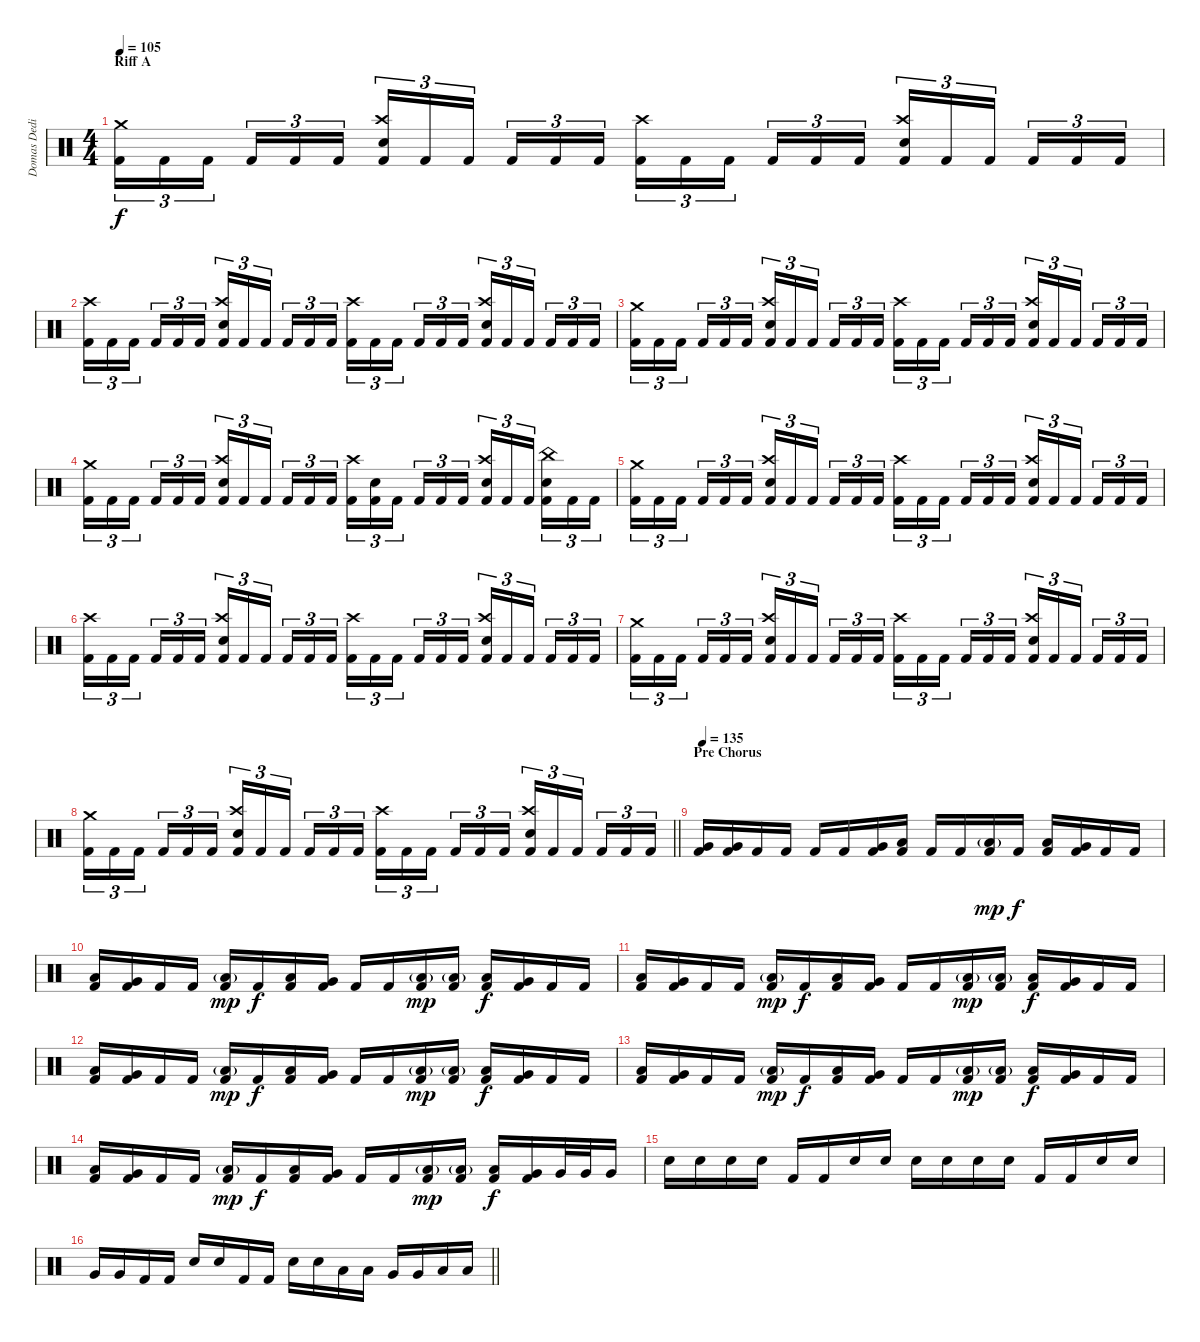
\track ("Domas Dedinas" "Domas Dedi") {instrument percussion}
\staff {score}
\articulation defaults
\ts (4 4)
\section ("" "Riff A")
\tempo 105
\clef neutral
\ks c
("Crash medium (hit)" "Kick (hit) 2").16{tu (3 2) dy f} "Kick (hit) 2".16{tu (3 2)} "Kick (hit) 2".16{tu (3 2) beam splitsecondary} "Kick (hit) 2".16{tu (3 2)} "Kick (hit) 2".16{tu (3 2)} "Kick (hit) 2".16{tu (3 2)} ("Crash high (hit)" "Snare (hit) 2" "Kick (hit) 2").16{tu (3 2)} "Kick (hit) 2".16{tu (3 2)} "Kick (hit) 2".16{tu (3 2) beam splitsecondary} "Kick (hit) 2".16{tu (3 2)} "Kick (hit) 2".16{tu (3 2)} "Kick (hit) 2".16{tu (3 2)} ("Crash high (hit)" "Kick (hit) 2").16{tu (3 2)} "Kick (hit) 2".16{tu (3 2)} "Kick (hit) 2".16{tu (3 2) beam splitsecondary} "Kick (hit) 2".16{tu (3 2)} "Kick (hit) 2".16{tu (3 2)} "Kick (hit) 2".16{tu (3 2)} ("Crash high (hit)" "Snare (hit) 2" "Kick (hit) 2").16{tu (3 2)} "Kick (hit) 2".16{tu (3 2)} "Kick (hit) 2".16{tu (3 2) beam splitsecondary} "Kick (hit) 2".16{tu (3 2)} "Kick (hit) 2".16{tu (3 2)} "Kick (hit) 2".16{tu (3 2)} |
("Crash high (hit)" "Kick (hit) 2").16{tu (3 2)} "Kick (hit) 2".16{tu (3 2)} "Kick (hit) 2".16{tu (3 2) beam splitsecondary} "Kick (hit) 2".16{tu (3 2)} "Kick (hit) 2".16{tu (3 2)} "Kick (hit) 2".16{tu (3 2)} ("Crash high (hit)" "Snare (hit) 2" "Kick (hit) 2").16{tu (3 2)} "Kick (hit) 2".16{tu (3 2)} "Kick (hit) 2".16{tu (3 2) beam splitsecondary} "Kick (hit) 2".16{tu (3 2)} "Kick (hit) 2".16{tu (3 2)} "Kick (hit) 2".16{tu (3 2)} ("Crash high (hit)" "Kick (hit) 2").16{tu (3 2)} "Kick (hit) 2".16{tu (3 2)} "Kick (hit) 2".16{tu (3 2) beam splitsecondary} "Kick (hit) 2".16{tu (3 2)} "Kick (hit) 2".16{tu (3 2)} "Kick (hit) 2".16{tu (3 2)} ("Crash high (hit)" "Snare (hit) 2" "Kick (hit) 2").16{tu (3 2)} "Kick (hit) 2".16{tu (3 2)} "Kick (hit) 2".16{tu (3 2) beam splitsecondary} "Kick (hit) 2".16{tu (3 2)} "Kick (hit) 2".16{tu (3 2)} "Kick (hit) 2".16{tu (3 2)} |
("Crash medium (hit)" "Kick (hit) 2").16{tu (3 2)} "Kick (hit) 2".16{tu (3 2)} "Kick (hit) 2".16{tu (3 2) beam splitsecondary} "Kick (hit) 2".16{tu (3 2)} "Kick (hit) 2".16{tu (3 2)} "Kick (hit) 2".16{tu (3 2)} ("Crash high (hit)" "Snare (hit) 2" "Kick (hit) 2").16{tu (3 2)} "Kick (hit) 2".16{tu (3 2)} "Kick (hit) 2".16{tu (3 2) beam splitsecondary} "Kick (hit) 2".16{tu (3 2)} "Kick (hit) 2".16{tu (3 2)} "Kick (hit) 2".16{tu (3 2)} ("Crash high (hit)" "Kick (hit) 2").16{tu (3 2)} "Kick (hit) 2".16{tu (3 2)} "Kick (hit) 2".16{tu (3 2) beam splitsecondary} "Kick (hit) 2".16{tu (3 2)} "Kick (hit) 2".16{tu (3 2)} "Kick (hit) 2".16{tu (3 2)} ("Crash high (hit)" "Snare (hit) 2" "Kick (hit) 2").16{tu (3 2)} "Kick (hit) 2".16{tu (3 2)} "Kick (hit) 2".16{tu (3 2) beam splitsecondary} "Kick (hit) 2".16{tu (3 2)} "Kick (hit) 2".16{tu (3 2)} "Kick (hit) 2".16{tu (3 2)} |
("Crash medium (hit)" "Kick (hit) 2").16{tu (3 2)} "Kick (hit) 2".16{tu (3 2)} "Kick (hit) 2".16{tu (3 2) beam splitsecondary} "Kick (hit) 2".16{tu (3 2)} "Kick (hit) 2".16{tu (3 2)} "Kick (hit) 2".16{tu (3 2)} ("Crash high (hit)" "Snare (hit) 2" "Kick (hit) 2").16{tu (3 2)} "Kick (hit) 2".16{tu (3 2)} "Kick (hit) 2".16{tu (3 2) beam splitsecondary} "Kick (hit) 2".16{tu (3 2)} "Kick (hit) 2".16{tu (3 2)} "Kick (hit) 2".16{tu (3 2)} ("Crash high (hit)" "Kick (hit) 2").16{tu (3 2)} ("Snare (hit) 2" "Kick (hit) 2").16{tu (3 2)} "Kick (hit) 2".16{tu (3 2) beam splitsecondary} "Kick (hit) 2".16{tu (3 2)} "Kick (hit) 2".16{tu (3 2)} "Kick (hit) 2".16{tu (3 2)} ("Crash high (hit)" "Snare (hit) 2" "Kick (hit) 2").16{tu (3 2)} "Kick (hit) 2".16{tu (3 2)} "Kick (hit) 2".16{tu (3 2) beam splitsecondary} ("China (hit)" "Snare (hit) 2" "Kick (hit) 2").16{tu (3 2)} "Kick (hit) 2".16{tu (3 2)} "Kick (hit) 2".16{tu (3 2)} |
("Crash medium (hit)" "Kick (hit) 2").16{tu (3 2)} "Kick (hit) 2".16{tu (3 2)} "Kick (hit) 2".16{tu (3 2) beam splitsecondary} "Kick (hit) 2".16{tu (3 2)} "Kick (hit) 2".16{tu (3 2)} "Kick (hit) 2".16{tu (3 2)} ("Crash high (hit)" "Snare (hit) 2" "Kick (hit) 2").16{tu (3 2)} "Kick (hit) 2".16{tu (3 2)} "Kick (hit) 2".16{tu (3 2) beam splitsecondary} "Kick (hit) 2".16{tu (3 2)} "Kick (hit) 2".16{tu (3 2)} "Kick (hit) 2".16{tu (3 2)} ("Crash high (hit)" "Kick (hit) 2").16{tu (3 2)} "Kick (hit) 2".16{tu (3 2)} "Kick (hit) 2".16{tu (3 2) beam splitsecondary} "Kick (hit) 2".16{tu (3 2)} "Kick (hit) 2".16{tu (3 2)} "Kick (hit) 2".16{tu (3 2)} ("Crash high (hit)" "Snare (hit) 2" "Kick (hit) 2").16{tu (3 2)} "Kick (hit) 2".16{tu (3 2)} "Kick (hit) 2".16{tu (3 2) beam splitsecondary} "Kick (hit) 2".16{tu (3 2)} "Kick (hit) 2".16{tu (3 2)} "Kick (hit) 2".16{tu (3 2)} |
("Crash high (hit)" "Kick (hit) 2").16{tu (3 2)} "Kick (hit) 2".16{tu (3 2)} "Kick (hit) 2".16{tu (3 2) beam splitsecondary} "Kick (hit) 2".16{tu (3 2)} "Kick (hit) 2".16{tu (3 2)} "Kick (hit) 2".16{tu (3 2)} ("Crash high (hit)" "Snare (hit) 2" "Kick (hit) 2").16{tu (3 2)} "Kick (hit) 2".16{tu (3 2)} "Kick (hit) 2".16{tu (3 2) beam splitsecondary} "Kick (hit) 2".16{tu (3 2)} "Kick (hit) 2".16{tu (3 2)} "Kick (hit) 2".16{tu (3 2)} ("Crash high (hit)" "Kick (hit) 2").16{tu (3 2)} "Kick (hit) 2".16{tu (3 2)} "Kick (hit) 2".16{tu (3 2) beam splitsecondary} "Kick (hit) 2".16{tu (3 2)} "Kick (hit) 2".16{tu (3 2)} "Kick (hit) 2".16{tu (3 2)} ("Crash high (hit)" "Snare (hit) 2" "Kick (hit) 2").16{tu (3 2)} "Kick (hit) 2".16{tu (3 2)} "Kick (hit) 2".16{tu (3 2) beam splitsecondary} "Kick (hit) 2".16{tu (3 2)} "Kick (hit) 2".16{tu (3 2)} "Kick (hit) 2".16{tu (3 2)} |
("Crash medium (hit)" "Kick (hit) 2").16{tu (3 2)} "Kick (hit) 2".16{tu (3 2)} "Kick (hit) 2".16{tu (3 2) beam splitsecondary} "Kick (hit) 2".16{tu (3 2)} "Kick (hit) 2".16{tu (3 2)} "Kick (hit) 2".16{tu (3 2)} ("Crash high (hit)" "Snare (hit) 2" "Kick (hit) 2").16{tu (3 2)} "Kick (hit) 2".16{tu (3 2)} "Kick (hit) 2".16{tu (3 2) beam splitsecondary} "Kick (hit) 2".16{tu (3 2)} "Kick (hit) 2".16{tu (3 2)} "Kick (hit) 2".16{tu (3 2)} ("Crash high (hit)" "Kick (hit) 2").16{tu (3 2)} "Kick (hit) 2".16{tu (3 2)} "Kick (hit) 2".16{tu (3 2) beam splitsecondary} "Kick (hit) 2".16{tu (3 2)} "Kick (hit) 2".16{tu (3 2)} "Kick (hit) 2".16{tu (3 2)} ("Crash high (hit)" "Snare (hit) 2" "Kick (hit) 2").16{tu (3 2)} "Kick (hit) 2".16{tu (3 2)} "Kick (hit) 2".16{tu (3 2) beam splitsecondary} "Kick (hit) 2".16{tu (3 2)} "Kick (hit) 2".16{tu (3 2)} "Kick (hit) 2".16{tu (3 2)} |
\barLineRight lightlight
("Crash medium (hit)" "Kick (hit) 2").16{tu (3 2)} "Kick (hit) 2".16{tu (3 2)} "Kick (hit) 2".16{tu (3 2) beam splitsecondary} "Kick (hit) 2".16{tu (3 2)} "Kick (hit) 2".16{tu (3 2)} "Kick (hit) 2".16{tu (3 2)} ("Crash high (hit)" "Snare (hit) 2" "Kick (hit) 2").16{tu (3 2)} "Kick (hit) 2".16{tu (3 2)} "Kick (hit) 2".16{tu (3 2) beam splitsecondary} "Kick (hit) 2".16{tu (3 2)} "Kick (hit) 2".16{tu (3 2)} "Kick (hit) 2".16{tu (3 2)} ("Crash high (hit)" "Kick (hit) 2").16{tu (3 2)} "Kick (hit) 2".16{tu (3 2)} "Kick (hit) 2".16{tu (3 2) beam splitsecondary} "Kick (hit) 2".16{tu (3 2)} "Kick (hit) 2".16{tu (3 2)} "Kick (hit) 2".16{tu (3 2)} ("Crash high (hit)" "Snare (hit) 2" "Kick (hit) 2").16{tu (3 2)} "Kick (hit) 2".16{tu (3 2)} "Kick (hit) 2".16{tu (3 2) beam splitsecondary} "Kick (hit) 2".16{tu (3 2)} "Kick (hit) 2".16{tu (3 2)} "Kick (hit) 2".16{tu (3 2)} |
\section ("" "Pre Chorus")
\tempo 135
("Very Low Tom (hit)" "Kick (hit) 2").16 ("Very Low Tom (hit)" "Kick (hit) 2").16 "Kick (hit) 2".16 "Kick (hit) 2".16 "Kick (hit) 2".16 "Kick (hit) 2".16 ("Very Low Tom (hit)" "Kick (hit) 2").16 ("Low Floor Tom (hit)" "Kick (hit) 2").16 "Kick (hit) 2".16 "Kick (hit) 2".16 ("Low Floor Tom (hit)"{g} "Kick (hit) 2").16{dy mp} "Kick (hit) 2".16{dy f} ("Low Tom (hit)" "Kick (hit) 2").16 ("Very Low Tom (hit)" "Kick (hit) 2").16 "Kick (hit) 2".16 "Kick (hit) 2".16 |
("Low Tom (hit)" "Kick (hit) 2").16 ("Very Low Tom (hit)" "Kick (hit) 2").16 "Kick (hit) 2".16 "Kick (hit) 2".16 ("Low Floor Tom (hit)"{g} "Kick (hit) 2").16{dy mp} "Kick (hit) 2".16{dy f} ("Low Tom (hit)" "Kick (hit) 2").16 ("Very Low Tom (hit)" "Kick (hit) 2").16 "Kick (hit) 2".16 "Kick (hit) 2".16 ("Low Floor Tom (hit)"{g} "Kick (hit) 2").16{dy mp} ("Low Floor Tom (hit)"{g} "Kick (hit) 2").16 ("Low Tom (hit)" "Kick (hit) 2").16{dy f} ("Very Low Tom (hit)" "Kick (hit) 2").16 "Kick (hit) 2".16 "Kick (hit) 2".16 |
("Low Tom (hit)" "Kick (hit) 2").16 ("Very Low Tom (hit)" "Kick (hit) 2").16 "Kick (hit) 2".16 "Kick (hit) 2".16 ("Low Floor Tom (hit)"{g} "Kick (hit) 2").16{dy mp} "Kick (hit) 2".16{dy f} ("Low Tom (hit)" "Kick (hit) 2").16 ("Very Low Tom (hit)" "Kick (hit) 2").16 "Kick (hit) 2".16 "Kick (hit) 2".16 ("Low Floor Tom (hit)"{g} "Kick (hit) 2").16{dy mp} ("Low Floor Tom (hit)"{g} "Kick (hit) 2").16 ("Low Tom (hit)" "Kick (hit) 2").16{dy f} ("Very Low Tom (hit)" "Kick (hit) 2").16 "Kick (hit) 2".16 "Kick (hit) 2".16 |
("Low Tom (hit)" "Kick (hit) 2").16 ("Very Low Tom (hit)" "Kick (hit) 2").16 "Kick (hit) 2".16 "Kick (hit) 2".16 ("Low Floor Tom (hit)"{g} "Kick (hit) 2").16{dy mp} "Kick (hit) 2".16{dy f} ("Low Tom (hit)" "Kick (hit) 2").16 ("Very Low Tom (hit)" "Kick (hit) 2").16 "Kick (hit) 2".16 "Kick (hit) 2".16 ("Low Floor Tom (hit)"{g} "Kick (hit) 2").16{dy mp} ("Low Floor Tom (hit)"{g} "Kick (hit) 2").16 ("Low Tom (hit)" "Kick (hit) 2").16{dy f} ("Very Low Tom (hit)" "Kick (hit) 2").16 "Kick (hit) 2".16 "Kick (hit) 2".16 |
("Low Tom (hit)" "Kick (hit) 2").16 ("Very Low Tom (hit)" "Kick (hit) 2").16 "Kick (hit) 2".16 "Kick (hit) 2".16 ("Low Floor Tom (hit)"{g} "Kick (hit) 2").16{dy mp} "Kick (hit) 2".16{dy f} ("Low Tom (hit)" "Kick (hit) 2").16 ("Very Low Tom (hit)" "Kick (hit) 2").16 "Kick (hit) 2".16 "Kick (hit) 2".16 ("Low Floor Tom (hit)"{g} "Kick (hit) 2").16{dy mp} ("Low Floor Tom (hit)"{g} "Kick (hit) 2").16 ("Low Tom (hit)" "Kick (hit) 2").16{dy f} ("Very Low Tom (hit)" "Kick (hit) 2").16 "Kick (hit) 2".16 "Kick (hit) 2".16 |
("Low Tom (hit)" "Kick (hit) 2").16 ("Very Low Tom (hit)" "Kick (hit) 2").16 "Kick (hit) 2".16 "Kick (hit) 2".16 ("Low Floor Tom (hit)"{g} "Kick (hit) 2").16{dy mp} "Kick (hit) 2".16{dy f} ("Low Tom (hit)" "Kick (hit) 2").16 ("Very Low Tom (hit)" "Kick (hit) 2").16 "Kick (hit) 2".16 "Kick (hit) 2".16 ("Low Floor Tom (hit)"{g} "Kick (hit) 2").16{dy mp} ("Low Floor Tom (hit)"{g} "Kick (hit) 2").16 ("Low Tom (hit)" "Kick (hit) 2").16{dy f} ("Very Low Tom (hit)" "Kick (hit) 2").16 "Very Low Tom (hit)".32 "Very Low Tom (hit)".32 "Very Low Tom (hit)".16 |
"Snare (hit) 2".16 "Snare (hit) 2".16 "Snare (hit) 2".16 "Snare (hit) 2".16 "Kick (hit) 2".16 "Kick (hit) 2".16 "Snare (hit) 2".16 "Snare (hit) 2".16 "Snare (hit) 2".16 "Snare (hit) 2".16 "Snare (hit) 2".16 "Snare (hit) 2".16 "Kick (hit) 2".16 "Kick (hit) 2".16 "Snare (hit) 2".16 "Snare (hit) 2".16 |
\barLineRight lightlight "Very Low Tom (hit)".16 "Very Low Tom (hit)".16 "Kick (hit) 2".16 "Kick (hit) 2".16 "Snare (hit) 2".16 "Snare (hit) 2".16 "Kick (hit) 2".16 "Kick (hit) 2".16 "Snare (hit) 2".16 "Snare (hit) 2".16 "Low Tom (hit)".16 "Low Tom (hit)".16 "Very Low Tom (hit)".16 "Very Low Tom (hit)".16 "Low Floor Tom (hit)".16 "Low Floor Tom (hit)".16
